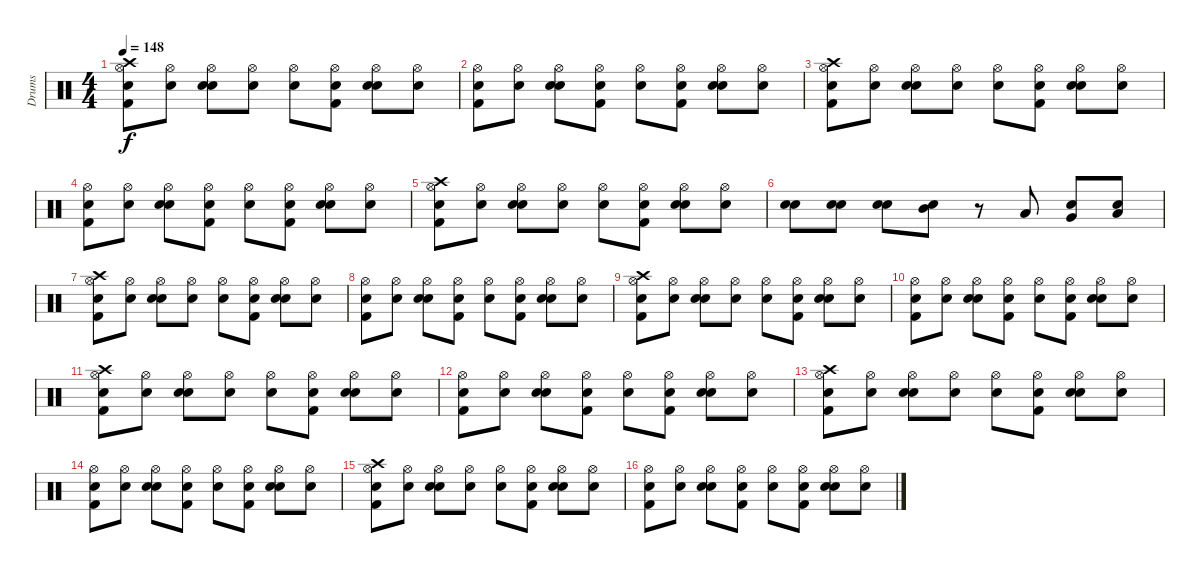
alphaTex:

\track ("Drums" "Drums") {instrument percussion}
\staff {score}
\articulation defaults
\ts (4 4)
\tempo 148
\clef neutral
\ks c
("Snare (hit)" "Kick (hit) 2" "Hi-Hat (open)" "Crash high (hit)").8{dy f} ("Snare (hit)" "Hi-Hat (open)").8 ("Snare (hit)" "Snare (hit) 2" "Hi-Hat (open)").8 ("Snare (hit)" "Hi-Hat (open)").8 ("Snare (hit)" "Hi-Hat (open)").8 ("Snare (hit)" "Kick (hit) 2" "Hi-Hat (open)").8 ("Snare (hit)" "Snare (hit) 2" "Hi-Hat (open)").8 ("Snare (hit)" "Hi-Hat (open)").8 |
("Snare (hit)" "Kick (hit) 2" "Hi-Hat (open)").8 ("Snare (hit)" "Hi-Hat (open)").8 ("Snare (hit)" "Snare (hit) 2" "Hi-Hat (open)").8 ("Snare (hit)" "Kick (hit) 2" "Hi-Hat (open)").8 ("Snare (hit)" "Hi-Hat (open)").8 ("Snare (hit)" "Kick (hit) 2" "Hi-Hat (open)").8 ("Snare (hit)" "Snare (hit) 2" "Hi-Hat (open)").8 ("Snare (hit)" "Hi-Hat (open)").8 |
("Snare (hit)" "Kick (hit) 2" "Hi-Hat (open)" "Crash high (hit)").8 ("Snare (hit)" "Hi-Hat (open)").8 ("Snare (hit)" "Snare (hit) 2" "Hi-Hat (open)").8 ("Snare (hit)" "Hi-Hat (open)").8 ("Snare (hit)" "Hi-Hat (open)").8 ("Snare (hit)" "Kick (hit) 2" "Hi-Hat (open)").8 ("Snare (hit)" "Snare (hit) 2" "Hi-Hat (open)").8 ("Snare (hit)" "Hi-Hat (open)").8 |
("Snare (hit)" "Kick (hit) 2" "Hi-Hat (open)").8 ("Snare (hit)" "Hi-Hat (open)").8 ("Snare (hit)" "Snare (hit) 2" "Hi-Hat (open)").8 ("Snare (hit)" "Kick (hit) 2" "Hi-Hat (open)").8 ("Snare (hit)" "Hi-Hat (open)").8 ("Snare (hit)" "Kick (hit) 2" "Hi-Hat (open)").8 ("Snare (hit)" "Snare (hit) 2" "Hi-Hat (open)").8 ("Snare (hit)" "Hi-Hat (open)").8 |
("Snare (hit)" "Kick (hit) 2" "Hi-Hat (open)" "Crash high (hit)").8 ("Snare (hit)" "Hi-Hat (open)").8 ("Snare (hit)" "Snare (hit) 2" "Hi-Hat (open)").8 ("Snare (hit)" "Hi-Hat (open)").8 ("Snare (hit)" "Hi-Hat (open)").8 ("Snare (hit)" "Kick (hit) 2" "Hi-Hat (open)").8 ("Snare (hit)" "Snare (hit) 2" "Hi-Hat (open)").8 ("Snare (hit)" "Hi-Hat (open)").8 |
("Snare (hit)" "Snare (hit) 2").8 ("Snare (hit)" "Snare (hit) 2").8 ("Snare (hit)" "Snare (hit) 2").8 ("Snare (hit)" "Mid Tom (hit)").8 r.8 "Low Tom (hit)".8 ("Snare (hit)" "Very Low Tom (hit)").8 ("Snare (hit)" "Low Floor Tom (hit)").8 |
("Snare (hit)" "Kick (hit) 2" "Hi-Hat (open)" "Crash high (hit)").8 ("Snare (hit)" "Hi-Hat (open)").8 ("Snare (hit)" "Snare (hit) 2" "Hi-Hat (open)").8 ("Snare (hit)" "Hi-Hat (open)").8 ("Snare (hit)" "Hi-Hat (open)").8 ("Snare (hit)" "Kick (hit) 2" "Hi-Hat (open)").8 ("Snare (hit)" "Snare (hit) 2" "Hi-Hat (open)").8 ("Snare (hit)" "Hi-Hat (open)").8 |
("Snare (hit)" "Kick (hit) 2" "Hi-Hat (open)").8 ("Snare (hit)" "Hi-Hat (open)").8 ("Snare (hit)" "Snare (hit) 2" "Hi-Hat (open)").8 ("Snare (hit)" "Kick (hit) 2" "Hi-Hat (open)").8 ("Snare (hit)" "Hi-Hat (open)").8 ("Snare (hit)" "Kick (hit) 2" "Hi-Hat (open)").8 ("Snare (hit)" "Snare (hit) 2" "Hi-Hat (open)").8 ("Snare (hit)" "Hi-Hat (open)").8 |
("Snare (hit)" "Kick (hit) 2" "Hi-Hat (open)" "Crash high (hit)").8 ("Snare (hit)" "Hi-Hat (open)").8 ("Snare (hit)" "Snare (hit) 2" "Hi-Hat (open)").8 ("Snare (hit)" "Hi-Hat (open)").8 ("Snare (hit)" "Hi-Hat (open)").8 ("Snare (hit)" "Kick (hit) 2" "Hi-Hat (open)").8 ("Snare (hit)" "Snare (hit) 2" "Hi-Hat (open)").8 ("Snare (hit)" "Hi-Hat (open)").8 |
("Snare (hit)" "Kick (hit) 2" "Hi-Hat (open)").8 ("Snare (hit)" "Hi-Hat (open)").8 ("Snare (hit)" "Snare (hit) 2" "Hi-Hat (open)").8 ("Snare (hit)" "Kick (hit) 2" "Hi-Hat (open)").8 ("Snare (hit)" "Hi-Hat (open)").8 ("Snare (hit)" "Kick (hit) 2" "Hi-Hat (open)").8 ("Snare (hit)" "Snare (hit) 2" "Hi-Hat (open)").8 ("Snare (hit)" "Hi-Hat (open)").8 |
("Snare (hit)" "Kick (hit) 2" "Hi-Hat (open)" "Crash high (hit)").8 ("Snare (hit)" "Hi-Hat (open)").8 ("Snare (hit)" "Snare (hit) 2" "Hi-Hat (open)").8 ("Snare (hit)" "Hi-Hat (open)").8 ("Snare (hit)" "Hi-Hat (open)").8 ("Snare (hit)" "Kick (hit) 2" "Hi-Hat (open)").8 ("Snare (hit)" "Snare (hit) 2" "Hi-Hat (open)").8 ("Snare (hit)" "Hi-Hat (open)").8 |
("Snare (hit)" "Kick (hit) 2" "Hi-Hat (open)").8 ("Snare (hit)" "Hi-Hat (open)").8 ("Snare (hit)" "Snare (hit) 2" "Hi-Hat (open)").8 ("Snare (hit)" "Kick (hit) 2" "Hi-Hat (open)").8 ("Snare (hit)" "Hi-Hat (open)").8 ("Snare (hit)" "Kick (hit) 2" "Hi-Hat (open)").8 ("Snare (hit)" "Snare (hit) 2" "Hi-Hat (open)").8 ("Snare (hit)" "Hi-Hat (open)").8 |
("Snare (hit)" "Kick (hit) 2" "Hi-Hat (open)" "Crash high (hit)").8 ("Snare (hit)" "Hi-Hat (open)").8 ("Snare (hit)" "Snare (hit) 2" "Hi-Hat (open)").8 ("Snare (hit)" "Hi-Hat (open)").8 ("Snare (hit)" "Hi-Hat (open)").8 ("Snare (hit)" "Kick (hit) 2" "Hi-Hat (open)").8 ("Snare (hit)" "Snare (hit) 2" "Hi-Hat (open)").8 ("Snare (hit)" "Hi-Hat (open)").8 |
("Snare (hit)" "Kick (hit) 2" "Hi-Hat (open)").8 ("Snare (hit)" "Hi-Hat (open)").8 ("Snare (hit)" "Snare (hit) 2" "Hi-Hat (open)").8 ("Snare (hit)" "Kick (hit) 2" "Hi-Hat (open)").8 ("Snare (hit)" "Hi-Hat (open)").8 ("Snare (hit)" "Kick (hit) 2" "Hi-Hat (open)").8 ("Snare (hit)" "Snare (hit) 2" "Hi-Hat (open)").8 ("Snare (hit)" "Hi-Hat (open)").8 |
("Snare (hit)" "Kick (hit) 2" "Hi-Hat (open)" "Crash high (hit)").8 ("Snare (hit)" "Hi-Hat (open)").8 ("Snare (hit)" "Snare (hit) 2" "Hi-Hat (open)").8 ("Snare (hit)" "Hi-Hat (open)").8 ("Snare (hit)" "Hi-Hat (open)").8 ("Snare (hit)" "Kick (hit) 2" "Hi-Hat (open)").8 ("Snare (hit)" "Snare (hit) 2" "Hi-Hat (open)").8 ("Snare (hit)" "Hi-Hat (open)").8 |
("Snare (hit)" "Kick (hit) 2" "Hi-Hat (open)").8 ("Snare (hit)" "Hi-Hat (open)").8 ("Snare (hit)" "Snare (hit) 2" "Hi-Hat (open)").8 ("Snare (hit)" "Kick (hit) 2" "Hi-Hat (open)").8 ("Snare (hit)" "Hi-Hat (open)").8 ("Snare (hit)" "Kick (hit) 2" "Hi-Hat (open)").8 ("Snare (hit)" "Snare (hit) 2" "Hi-Hat (open)").8 ("Snare (hit)" "Hi-Hat (open)").8
